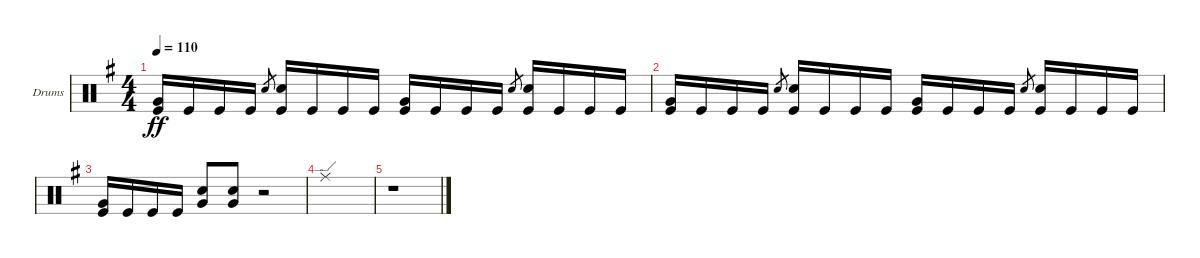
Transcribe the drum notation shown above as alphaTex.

\defaultSystemsLayout 4
\bracketExtendMode groupsimilarinstruments
\firstSystemTrackNameOrientation horizontal
\otherSystemsTrackNameOrientation horizontal
\track ("Drums" "Drums") {instrument percussion}
\staff {score}
\articulation defaults
\ts (4 4)
\tempo 110
\clef neutral
\ks eminor
("Kick (hit)" "Very Low Tom (hit)").16{dy ff} "Kick (hit)".16 "Kick (hit)".16 "Kick (hit)".16 "Snare (hit) 2".8{gr} ("Kick (hit)" "Snare (hit) 2").16 "Kick (hit)".16 "Kick (hit)".16 "Kick (hit)".16 ("Kick (hit)" "Very Low Tom (hit)").16 "Kick (hit)".16 "Kick (hit)".16 "Kick (hit)".16 "Snare (hit) 2".8{gr} ("Kick (hit)" "Snare (hit) 2").16 "Kick (hit)".16 "Kick (hit)".16 "Kick (hit)".16 |
("Kick (hit)" "Very Low Tom (hit)").16 "Kick (hit)".16 "Kick (hit)".16 "Kick (hit)".16 "Snare (hit) 2".8{gr} ("Kick (hit)" "Snare (hit) 2").16 "Kick (hit)".16 "Kick (hit)".16 "Kick (hit)".16 ("Kick (hit)" "Very Low Tom (hit)").16 "Kick (hit)".16 "Kick (hit)".16 "Kick (hit)".16 "Snare (hit) 2".8{gr} ("Kick (hit)" "Snare (hit) 2").16 "Kick (hit)".16 "Kick (hit)".16 "Kick (hit)".16 |
("Kick (hit)" "Very Low Tom (hit)").16 "Kick (hit)".16 "Kick (hit)".16 "Kick (hit)".16 ("Very Low Tom (hit)" "Snare (hit) 2").8 ("Snare (hit) 2" "Very Low Tom (hit)").8 r.2 |
"Ride (edge)".1 |
r.1
